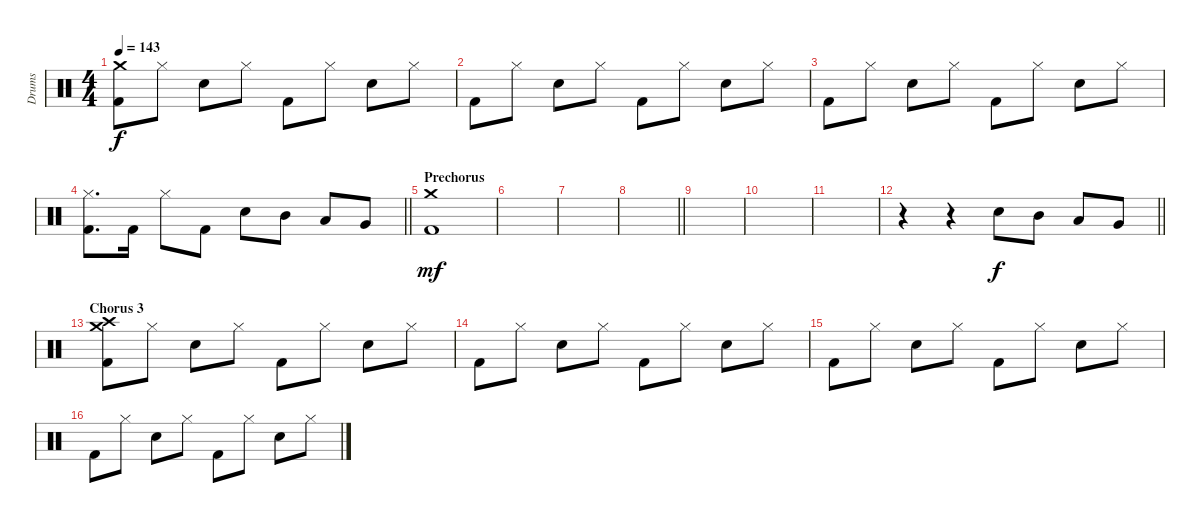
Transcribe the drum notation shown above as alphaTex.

\track ("Drums" "Drums") {instrument percussion}
\staff {score}
\articulation defaults
\ts (4 4)
\tempo 143
\clef neutral
\ks c
("Crash medium (hit)" "Kick (hit) 2").8{dy f} "Hi-Hat (closed)".8 "Snare (hit) 2".8 "Hi-Hat (closed)".8 "Kick (hit) 2".8 "Hi-Hat (closed)".8 "Snare (hit) 2".8 "Hi-Hat (closed)".8 |
"Kick (hit) 2".8 "Hi-Hat (closed)".8 "Snare (hit) 2".8 "Hi-Hat (closed)".8 "Kick (hit) 2".8 "Hi-Hat (closed)".8 "Snare (hit) 2".8 "Hi-Hat (closed)".8 |
"Kick (hit) 2".8 "Hi-Hat (closed)".8 "Snare (hit) 2".8 "Hi-Hat (closed)".8 "Kick (hit) 2".8 "Hi-Hat (closed)".8 "Snare (hit) 2".8 "Hi-Hat (closed)".8 |
\barLineRight lightlight
("Hi-Hat (closed)" "Kick (hit) 2").8{d} "Kick (hit) 2".16 "Hi-Hat (closed)".8 "Kick (hit) 2".8 "Snare (hit) 2".8 "Mid Tom (hit)".8 "Low Tom (hit)".8 "Very Low Tom (hit)".8 |
\section ("" "Prechorus")
("Crash medium (hit)" "Kick (hit) 2").1{dy mf} |
|
|
\barLineRight lightlight
|
|
|
|
\barLineRight lightlight
r.4 r.4 "Snare (hit) 2".8{dy f} "Mid Tom (hit)".8 "Low Tom (hit)".8 "Very Low Tom (hit)".8 |
\section ("" "Chorus 3")
("Crash medium (hit)" "Crash high (hit)" "Kick (hit) 2").8 "Hi-Hat (closed)".8 "Snare (hit) 2".8 "Hi-Hat (closed)".8 "Kick (hit) 2".8 "Hi-Hat (closed)".8 "Snare (hit) 2".8 "Hi-Hat (closed)".8 |
"Kick (hit) 2".8 "Hi-Hat (closed)".8 "Snare (hit) 2".8 "Hi-Hat (closed)".8 "Kick (hit) 2".8 "Hi-Hat (closed)".8 "Snare (hit) 2".8 "Hi-Hat (closed)".8 |
"Kick (hit) 2".8 "Hi-Hat (closed)".8 "Snare (hit) 2".8 "Hi-Hat (closed)".8 "Kick (hit) 2".8 "Hi-Hat (closed)".8 "Snare (hit) 2".8 "Hi-Hat (closed)".8 |
"Kick (hit) 2".8 "Hi-Hat (closed)".8 "Snare (hit) 2".8 "Hi-Hat (closed)".8 "Kick (hit) 2".8 "Hi-Hat (closed)".8 "Snare (hit) 2".8 "Hi-Hat (closed)".8
